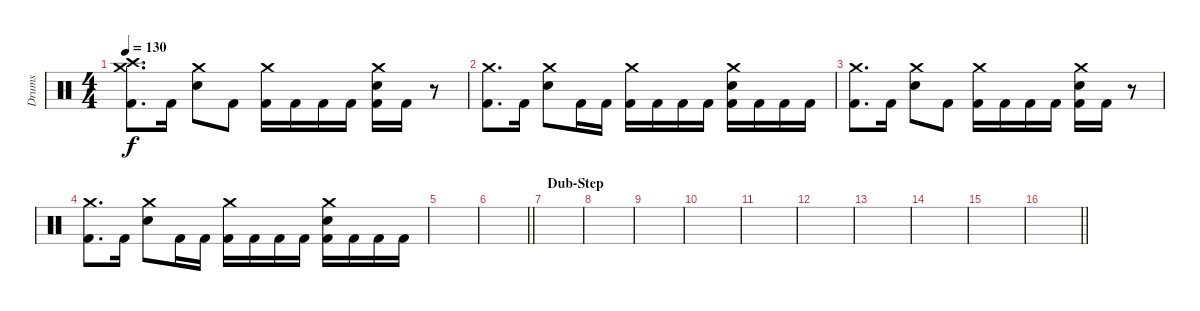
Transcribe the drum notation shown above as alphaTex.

\track ("Drums" "Drums") {instrument percussion}
\staff {score}
\articulation defaults
\ts (4 4)
\tempo 130
\clef neutral
\ks c
("Crash medium (hit)" "Crash high (hit)" "Kick (hit) 2").8{d dy f} "Kick (hit) 2".16 ("Crash medium (hit)" "Electric Snare (hit)").8 "Kick (hit) 2".8 ("Crash medium (hit)" "Kick (hit) 2").16 "Kick (hit) 2".16 "Kick (hit) 2".16 "Kick (hit) 2".16 ("Crash medium (hit)" "Electric Snare (hit)" "Kick (hit) 2").16 "Kick (hit) 2".16 r.8 |
("Crash medium (hit)" "Kick (hit) 2").8{d} "Kick (hit) 2".16 ("Crash medium (hit)" "Electric Snare (hit)").8 "Kick (hit) 2".16 "Kick (hit) 2".16 ("Crash medium (hit)" "Kick (hit) 2").16 "Kick (hit) 2".16 "Kick (hit) 2".16 "Kick (hit) 2".16 ("Crash medium (hit)" "Electric Snare (hit)" "Kick (hit) 2").16 "Kick (hit) 2".16 "Kick (hit) 2".16 "Kick (hit) 2".16 |
("Crash medium (hit)" "Kick (hit) 2").8{d} "Kick (hit) 2".16 ("Crash medium (hit)" "Electric Snare (hit)").8 "Kick (hit) 2".8 ("Crash medium (hit)" "Kick (hit) 2").16 "Kick (hit) 2".16 "Kick (hit) 2".16 "Kick (hit) 2".16 ("Crash medium (hit)" "Electric Snare (hit)" "Kick (hit) 2").16 "Kick (hit) 2".16 r.8 |
("Crash medium (hit)" "Kick (hit) 2").8{d} "Kick (hit) 2".16 ("Crash medium (hit)" "Electric Snare (hit)").8 "Kick (hit) 2".16 "Kick (hit) 2".16 ("Crash medium (hit)" "Kick (hit) 2").16 "Kick (hit) 2".16 "Kick (hit) 2".16 "Kick (hit) 2".16 ("Crash medium (hit)" "Electric Snare (hit)" "Kick (hit) 2").16 "Kick (hit) 2".16 "Kick (hit) 2".16 "Kick (hit) 2".16 |
|
\barLineRight lightlight
|
\section ("" "Dub-Step")
|
|
|
|
|
|
|
|
|
\barLineRight lightlight
